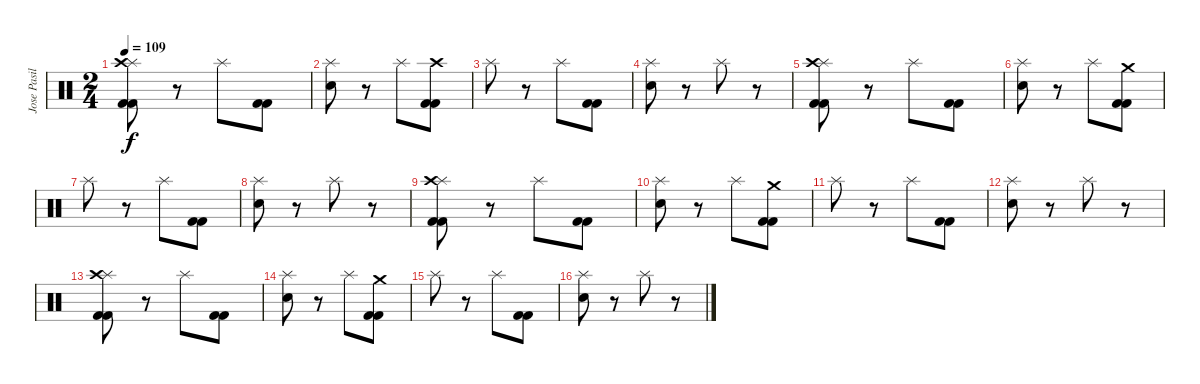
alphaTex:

\track ("Jose Pasillas" "Jose Pasil") {instrument percussion}
\staff {score}
\articulation defaults
\ts (2 4)
\tempo 109
\clef neutral
\ks c
("Splash (hit)" "Crash high (hit)" "Kick (hit) 2" "Kick (hit) 2").8{dy f} r.8 "Splash (hit)".8 ("Kick (hit) 2" "Kick (hit) 2").8 |
("Splash (hit)" "Electric Snare (hit)").8 r.8 "Splash (hit)".8 ("Crash high (hit)" "Kick (hit) 2" "Kick (hit) 2").8 |
"Splash (hit)".8 r.8 "Splash (hit)".8 ("Kick (hit) 2" "Kick (hit) 2").8 |
("Splash (hit)" "Electric Snare (hit)").8 r.8 "Splash (hit)".8 r.8 |
("Splash (hit)" "Crash high (hit)" "Kick (hit) 2" "Kick (hit) 2").8 r.8 "Splash (hit)".8 ("Kick (hit) 2" "Kick (hit) 2").8 |
("Splash (hit)" "Electric Snare (hit)").8 r.8 "Splash (hit)".8 ("Crash medium (hit)" "Kick (hit) 2" "Kick (hit) 2").8 |
"Splash (hit)".8 r.8 "Splash (hit)".8 ("Kick (hit) 2" "Kick (hit) 2").8 |
("Splash (hit)" "Electric Snare (hit)").8 r.8 "Splash (hit)".8 r.8 |
("Splash (hit)" "Crash high (hit)" "Kick (hit) 2" "Kick (hit) 2").8 r.8 "Splash (hit)".8 ("Kick (hit) 2" "Kick (hit) 2").8 |
("Splash (hit)" "Electric Snare (hit)").8 r.8 "Splash (hit)".8 ("Crash medium (hit)" "Kick (hit) 2" "Kick (hit) 2").8 |
"Splash (hit)".8 r.8 "Splash (hit)".8 ("Kick (hit) 2" "Kick (hit) 2").8 |
("Splash (hit)" "Electric Snare (hit)").8 r.8 "Splash (hit)".8 r.8 |
("Splash (hit)" "Crash high (hit)" "Kick (hit) 2" "Kick (hit) 2").8 r.8 "Splash (hit)".8 ("Kick (hit) 2" "Kick (hit) 2").8 |
("Splash (hit)" "Electric Snare (hit)").8 r.8 "Splash (hit)".8 ("Crash medium (hit)" "Kick (hit) 2" "Kick (hit) 2").8 |
"Splash (hit)".8 r.8 "Splash (hit)".8 ("Kick (hit) 2" "Kick (hit) 2").8 |
("Splash (hit)" "Electric Snare (hit)").8 r.8 "Splash (hit)".8 r.8
